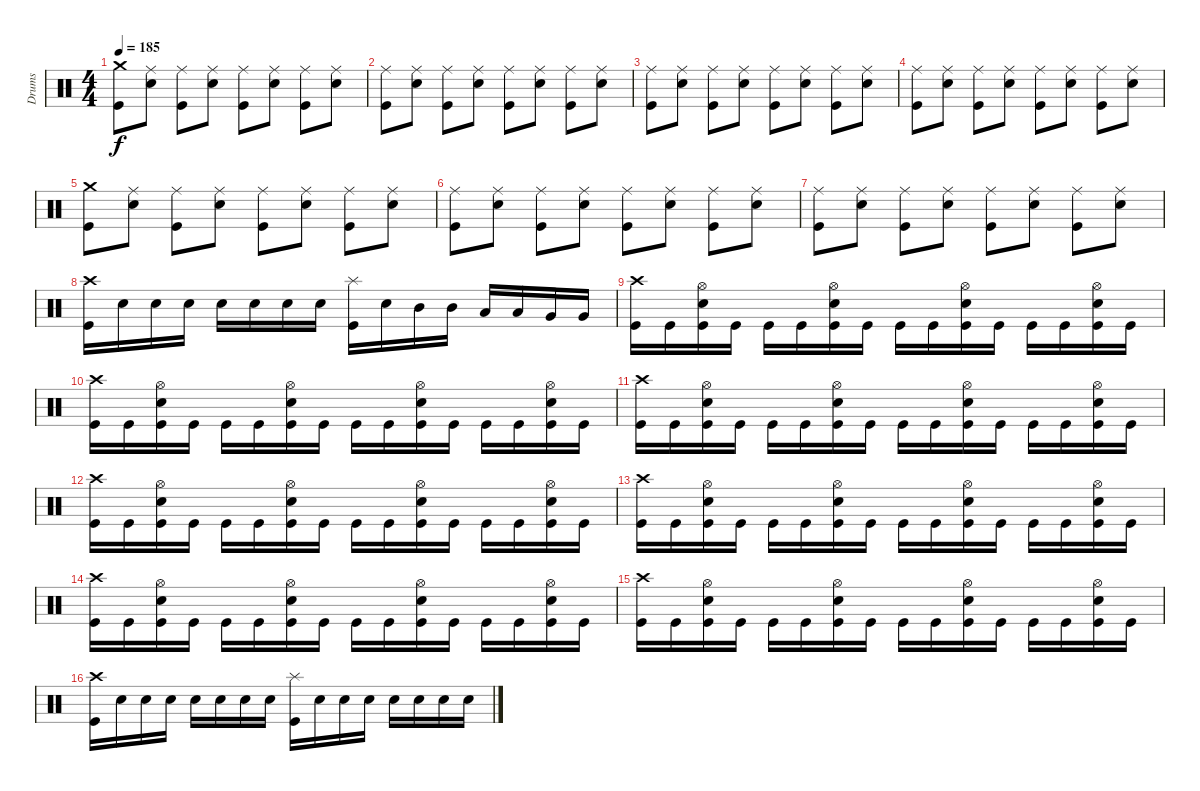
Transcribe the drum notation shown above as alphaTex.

\track ("Drums" "Drums") {instrument percussion}
\staff {score}
\articulation defaults
\ts (4 4)
\tempo 185
\clef neutral
\ks c
("Crash medium (hit)" "Kick (hit)").8{dy f} ("Ride (middle)" "Electric Snare (hit)").8 ("Ride (middle)" "Kick (hit)").8 ("Ride (middle)" "Electric Snare (hit)").8 ("Ride (middle)" "Kick (hit)").8 ("Ride (middle)" "Electric Snare (hit)").8 ("Ride (middle)" "Kick (hit)").8 ("Ride (middle)" "Electric Snare (hit)").8 |
("Ride (middle)" "Kick (hit)").8 ("Ride (middle)" "Electric Snare (hit)").8 ("Ride (middle)" "Kick (hit)").8 ("Ride (middle)" "Electric Snare (hit)").8 ("Ride (middle)" "Kick (hit)").8 ("Ride (middle)" "Electric Snare (hit)").8 ("Ride (middle)" "Kick (hit)").8 ("Ride (middle)" "Electric Snare (hit)").8 |
("Ride (middle)" "Kick (hit)").8 ("Ride (middle)" "Electric Snare (hit)").8 ("Ride (middle)" "Kick (hit)").8 ("Ride (middle)" "Electric Snare (hit)").8 ("Ride (middle)" "Kick (hit)").8 ("Ride (middle)" "Electric Snare (hit)").8 ("Ride (middle)" "Kick (hit)").8 ("Ride (middle)" "Electric Snare (hit)").8 |
("Ride (middle)" "Kick (hit)").8 ("Ride (middle)" "Electric Snare (hit)").8 ("Ride (middle)" "Kick (hit)").8 ("Ride (middle)" "Electric Snare (hit)").8 ("Ride (middle)" "Kick (hit)").8 ("Ride (middle)" "Electric Snare (hit)").8 ("Ride (middle)" "Kick (hit)").8 ("Ride (middle)" "Electric Snare (hit)").8 |
("Crash medium (hit)" "Kick (hit)").8 ("Ride (middle)" "Electric Snare (hit)").8 ("Ride (middle)" "Kick (hit)").8 ("Ride (middle)" "Electric Snare (hit)").8 ("Ride (middle)" "Kick (hit)").8 ("Ride (middle)" "Electric Snare (hit)").8 ("Ride (middle)" "Kick (hit)").8 ("Ride (middle)" "Electric Snare (hit)").8 |
("Ride (middle)" "Kick (hit)").8 ("Ride (middle)" "Electric Snare (hit)").8 ("Ride (middle)" "Kick (hit)").8 ("Ride (middle)" "Electric Snare (hit)").8 ("Ride (middle)" "Kick (hit)").8 ("Ride (middle)" "Electric Snare (hit)").8 ("Ride (middle)" "Kick (hit)").8 ("Ride (middle)" "Electric Snare (hit)").8 |
("Ride (middle)" "Kick (hit)").8 ("Ride (middle)" "Electric Snare (hit)").8 ("Ride (middle)" "Kick (hit)").8 ("Ride (middle)" "Electric Snare (hit)").8 ("Ride (middle)" "Kick (hit)").8 ("Ride (middle)" "Electric Snare (hit)").8 ("Ride (middle)" "Kick (hit)").8 ("Ride (middle)" "Electric Snare (hit)").8 |
("Crash high (hit)" "Kick (hit)").16 "Electric Snare (hit)".16 "Electric Snare (hit)".16 "Electric Snare (hit)".16 "Electric Snare (hit)".16 "Electric Snare (hit)".16 "Electric Snare (hit)".16 "Electric Snare (hit)".16 ("Splash (hit)" "Kick (hit)").16 "Electric Snare (hit)".16 "Mid Tom (hit)".16 "Mid Tom (hit)".16 "Low Tom (hit)".16 "Low Tom (hit)".16 "Very Low Tom (hit)".16 "Very Low Tom (hit)".16 |
("Crash high (hit)" "Kick (hit)").16 "Kick (hit)".16 ("Hi-Hat (open)" "Electric Snare (hit)" "Kick (hit)").16 "Kick (hit)".16 "Kick (hit)".16 "Kick (hit)".16 ("Hi-Hat (open)" "Electric Snare (hit)" "Kick (hit)").16 "Kick (hit)".16 "Kick (hit)".16 "Kick (hit)".16 ("Hi-Hat (open)" "Electric Snare (hit)" "Kick (hit)").16 "Kick (hit)".16 "Kick (hit)".16 "Kick (hit)".16 ("Hi-Hat (open)" "Electric Snare (hit)" "Kick (hit)").16 "Kick (hit)".16 |
("Crash high (hit)" "Kick (hit)").16 "Kick (hit)".16 ("Hi-Hat (open)" "Electric Snare (hit)" "Kick (hit)").16 "Kick (hit)".16 "Kick (hit)".16 "Kick (hit)".16 ("Hi-Hat (open)" "Electric Snare (hit)" "Kick (hit)").16 "Kick (hit)".16 "Kick (hit)".16 "Kick (hit)".16 ("Hi-Hat (open)" "Electric Snare (hit)" "Kick (hit)").16 "Kick (hit)".16 "Kick (hit)".16 "Kick (hit)".16 ("Hi-Hat (open)" "Electric Snare (hit)" "Kick (hit)").16 "Kick (hit)".16 |
("Crash high (hit)" "Kick (hit)").16 "Kick (hit)".16 ("Hi-Hat (open)" "Electric Snare (hit)" "Kick (hit)").16 "Kick (hit)".16 "Kick (hit)".16 "Kick (hit)".16 ("Hi-Hat (open)" "Electric Snare (hit)" "Kick (hit)").16 "Kick (hit)".16 "Kick (hit)".16 "Kick (hit)".16 ("Hi-Hat (open)" "Electric Snare (hit)" "Kick (hit)").16 "Kick (hit)".16 "Kick (hit)".16 "Kick (hit)".16 ("Hi-Hat (open)" "Electric Snare (hit)" "Kick (hit)").16 "Kick (hit)".16 |
("Crash high (hit)" "Kick (hit)").16 "Kick (hit)".16 ("Hi-Hat (open)" "Electric Snare (hit)" "Kick (hit)").16 "Kick (hit)".16 "Kick (hit)".16 "Kick (hit)".16 ("Hi-Hat (open)" "Electric Snare (hit)" "Kick (hit)").16 "Kick (hit)".16 "Kick (hit)".16 "Kick (hit)".16 ("Hi-Hat (open)" "Electric Snare (hit)" "Kick (hit)").16 "Kick (hit)".16 "Kick (hit)".16 "Kick (hit)".16 ("Hi-Hat (open)" "Electric Snare (hit)" "Kick (hit)").16 "Kick (hit)".16 |
("Crash high (hit)" "Kick (hit)").16 "Kick (hit)".16 ("Hi-Hat (open)" "Electric Snare (hit)" "Kick (hit)").16 "Kick (hit)".16 "Kick (hit)".16 "Kick (hit)".16 ("Hi-Hat (open)" "Electric Snare (hit)" "Kick (hit)").16 "Kick (hit)".16 "Kick (hit)".16 "Kick (hit)".16 ("Hi-Hat (open)" "Electric Snare (hit)" "Kick (hit)").16 "Kick (hit)".16 "Kick (hit)".16 "Kick (hit)".16 ("Hi-Hat (open)" "Electric Snare (hit)" "Kick (hit)").16 "Kick (hit)".16 |
("Crash high (hit)" "Kick (hit)").16 "Kick (hit)".16 ("Hi-Hat (open)" "Electric Snare (hit)" "Kick (hit)").16 "Kick (hit)".16 "Kick (hit)".16 "Kick (hit)".16 ("Hi-Hat (open)" "Electric Snare (hit)" "Kick (hit)").16 "Kick (hit)".16 "Kick (hit)".16 "Kick (hit)".16 ("Hi-Hat (open)" "Electric Snare (hit)" "Kick (hit)").16 "Kick (hit)".16 "Kick (hit)".16 "Kick (hit)".16 ("Hi-Hat (open)" "Electric Snare (hit)" "Kick (hit)").16 "Kick (hit)".16 |
("Crash high (hit)" "Kick (hit)").16 "Kick (hit)".16 ("Hi-Hat (open)" "Electric Snare (hit)" "Kick (hit)").16 "Kick (hit)".16 "Kick (hit)".16 "Kick (hit)".16 ("Hi-Hat (open)" "Electric Snare (hit)" "Kick (hit)").16 "Kick (hit)".16 "Kick (hit)".16 "Kick (hit)".16 ("Hi-Hat (open)" "Electric Snare (hit)" "Kick (hit)").16 "Kick (hit)".16 "Kick (hit)".16 "Kick (hit)".16 ("Hi-Hat (open)" "Electric Snare (hit)" "Kick (hit)").16 "Kick (hit)".16 |
("Crash high (hit)" "Kick (hit)").16 "Electric Snare (hit)".16 "Electric Snare (hit)".16 "Electric Snare (hit)".16 "Electric Snare (hit)".16 "Electric Snare (hit)".16 "Electric Snare (hit)".16 "Electric Snare (hit)".16 ("Splash (hit)" "Kick (hit)").16 "Electric Snare (hit)".16 "Electric Snare (hit)".16 "Electric Snare (hit)".16 "Electric Snare (hit)".16 "Electric Snare (hit)".16 "Electric Snare (hit)".16 "Electric Snare (hit)".16
